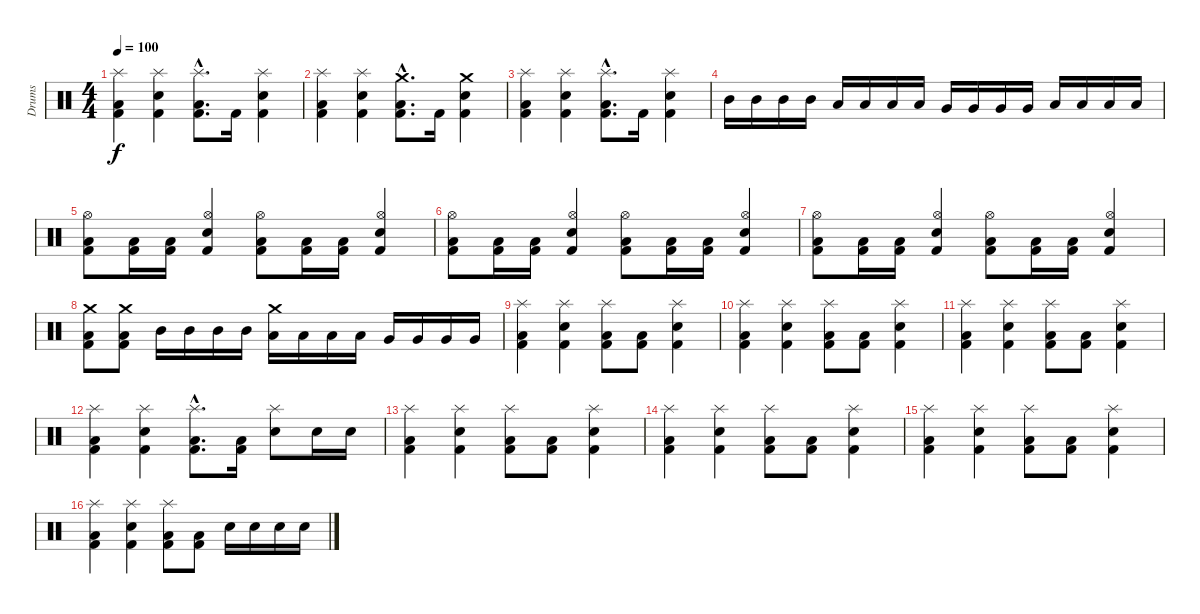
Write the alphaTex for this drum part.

\track ("Drums" "Drums") {instrument percussion}
\staff {score}
\articulation defaults
\ts (4 4)
\tempo 100
\clef neutral
\ks c
("Splash (hit)" "Low Floor Tom (hit)" "Kick (hit) 2").4{dy f} ("Splash (hit)" "Snare (hit) 2" "Kick (hit) 2").4 ("Splash (hit)"{hac} "Low Floor Tom (hit)"{hac} "Kick (hit) 2"{hac}).8{d} "Kick (hit) 2".16 ("Splash (hit)" "Snare (hit) 2" "Kick (hit) 2").4 |
("Splash (hit)" "Low Floor Tom (hit)" "Kick (hit) 2").4 ("Splash (hit)" "Snare (hit) 2" "Kick (hit) 2").4 ("Crash medium (hit)"{hac} "Low Floor Tom (hit)"{hac} "Kick (hit) 2"{hac}).8{d} "Kick (hit) 2".16 ("Crash medium (hit)" "Snare (hit) 2" "Kick (hit) 2").4 |
("Splash (hit)" "Low Floor Tom (hit)" "Kick (hit) 2").4 ("Splash (hit)" "Snare (hit) 2" "Kick (hit) 2").4 ("Splash (hit)"{hac} "Low Floor Tom (hit)"{hac} "Kick (hit) 2"{hac}).8{d} "Kick (hit) 2".16 ("Splash (hit)" "Snare (hit) 2" "Kick (hit) 2").4 |
"Mid Tom (hit)".16 "Mid Tom (hit)".16 "Mid Tom (hit)".16 "Mid Tom (hit)".16 "Low Tom (hit)".16 "Low Tom (hit)".16 "Low Tom (hit)".16 "Low Tom (hit)".16 "Very Low Tom (hit)".16 "Very Low Tom (hit)".16 "Very Low Tom (hit)".16 "Very Low Tom (hit)".16 "Low Floor Tom (hit)".16 "Low Floor Tom (hit)".16 "Low Floor Tom (hit)".16 "Low Floor Tom (hit)".16 |
("Hi-Hat (open)" "Low Floor Tom (hit)" "Kick (hit) 2").8 ("Low Floor Tom (hit)" "Kick (hit) 2").16 ("Low Floor Tom (hit)" "Kick (hit) 2").16 ("Hi-Hat (open)" "Electric Snare (hit)" "Kick (hit) 2").4 ("Hi-Hat (open)" "Low Floor Tom (hit)" "Kick (hit) 2").8 ("Low Floor Tom (hit)" "Kick (hit) 2").16 ("Low Floor Tom (hit)" "Kick (hit) 2").16 ("Hi-Hat (open)" "Electric Snare (hit)" "Kick (hit) 2").4 |
("Hi-Hat (open)" "Low Floor Tom (hit)" "Kick (hit) 2").8 ("Low Floor Tom (hit)" "Kick (hit) 2").16 ("Low Floor Tom (hit)" "Kick (hit) 2").16 ("Hi-Hat (open)" "Electric Snare (hit)" "Kick (hit) 2").4 ("Hi-Hat (open)" "Low Floor Tom (hit)" "Kick (hit) 2").8 ("Low Floor Tom (hit)" "Kick (hit) 2").16 ("Low Floor Tom (hit)" "Kick (hit) 2").16 ("Hi-Hat (open)" "Electric Snare (hit)" "Kick (hit) 2").4 |
("Hi-Hat (open)" "Low Floor Tom (hit)" "Kick (hit) 2").8 ("Low Floor Tom (hit)" "Kick (hit) 2").16 ("Low Floor Tom (hit)" "Kick (hit) 2").16 ("Hi-Hat (open)" "Electric Snare (hit)" "Kick (hit) 2").4 ("Hi-Hat (open)" "Low Floor Tom (hit)" "Kick (hit) 2").8 ("Low Floor Tom (hit)" "Kick (hit) 2").16 ("Low Floor Tom (hit)" "Kick (hit) 2").16 ("Hi-Hat (open)" "Electric Snare (hit)" "Kick (hit) 2").4 |
("Crash medium (hit)" "Low Floor Tom (hit)" "Kick (hit) 2").8 ("Crash medium (hit)" "Low Floor Tom (hit)" "Kick (hit) 2").8 "Mid Tom (hit)".16 "Mid Tom (hit)".16 "Mid Tom (hit)".16 "Mid Tom (hit)".16 ("Crash medium (hit)" "Low Tom (hit)").16 "Low Tom (hit)".16 "Low Tom (hit)".16 "Low Tom (hit)".16 "Very Low Tom (hit)".16 "Very Low Tom (hit)".16 "Very Low Tom (hit)".16 "Very Low Tom (hit)".16 |
("Splash (hit)" "Low Floor Tom (hit)" "Kick (hit) 2").4 ("Splash (hit)" "Snare (hit) 2" "Kick (hit) 2").4 ("Splash (hit)" "Low Floor Tom (hit)" "Kick (hit) 2").8 ("Low Floor Tom (hit)" "Kick (hit) 2").8 ("Splash (hit)" "Snare (hit) 2" "Kick (hit) 2").4 |
("Splash (hit)" "Low Floor Tom (hit)" "Kick (hit) 2").4 ("Splash (hit)" "Snare (hit) 2" "Kick (hit) 2").4 ("Splash (hit)" "Low Floor Tom (hit)" "Kick (hit) 2").8 ("Low Floor Tom (hit)" "Kick (hit) 2").8 ("Splash (hit)" "Snare (hit) 2" "Kick (hit) 2").4 |
("Splash (hit)" "Low Floor Tom (hit)" "Kick (hit) 2").4 ("Splash (hit)" "Snare (hit) 2" "Kick (hit) 2").4 ("Splash (hit)" "Low Floor Tom (hit)" "Kick (hit) 2").8 ("Low Floor Tom (hit)" "Kick (hit) 2").8 ("Splash (hit)" "Snare (hit) 2" "Kick (hit) 2").4 |
("Splash (hit)" "Low Floor Tom (hit)" "Kick (hit) 2").4 ("Splash (hit)" "Snare (hit) 2" "Kick (hit) 2").4 ("Splash (hit)"{hac} "Low Floor Tom (hit)"{hac} "Kick (hit) 2"{hac}).8{d} ("Low Floor Tom (hit)" "Kick (hit) 2").16 ("Splash (hit)" "Snare (hit) 2").8 "Snare (hit) 2".16 "Snare (hit) 2".16 |
("Splash (hit)" "Low Floor Tom (hit)" "Kick (hit) 2").4 ("Splash (hit)" "Snare (hit) 2" "Kick (hit) 2").4 ("Splash (hit)" "Low Floor Tom (hit)" "Kick (hit) 2").8 ("Low Floor Tom (hit)" "Kick (hit) 2").8 ("Splash (hit)" "Snare (hit) 2" "Kick (hit) 2").4 |
("Splash (hit)" "Low Floor Tom (hit)" "Kick (hit) 2").4 ("Splash (hit)" "Snare (hit) 2" "Kick (hit) 2").4 ("Splash (hit)" "Low Floor Tom (hit)" "Kick (hit) 2").8 ("Low Floor Tom (hit)" "Kick (hit) 2").8 ("Splash (hit)" "Snare (hit) 2" "Kick (hit) 2").4 |
("Splash (hit)" "Low Floor Tom (hit)" "Kick (hit) 2").4 ("Splash (hit)" "Snare (hit) 2" "Kick (hit) 2").4 ("Splash (hit)" "Low Floor Tom (hit)" "Kick (hit) 2").8 ("Low Floor Tom (hit)" "Kick (hit) 2").8 ("Splash (hit)" "Snare (hit) 2" "Kick (hit) 2").4 |
("Splash (hit)" "Low Floor Tom (hit)" "Kick (hit) 2").4 ("Splash (hit)" "Snare (hit) 2" "Kick (hit) 2").4 ("Splash (hit)" "Low Floor Tom (hit)" "Kick (hit) 2").8 ("Low Floor Tom (hit)" "Kick (hit) 2").8 "Snare (hit) 2".16 "Snare (hit) 2".16 "Snare (hit) 2".16 "Snare (hit) 2".16
